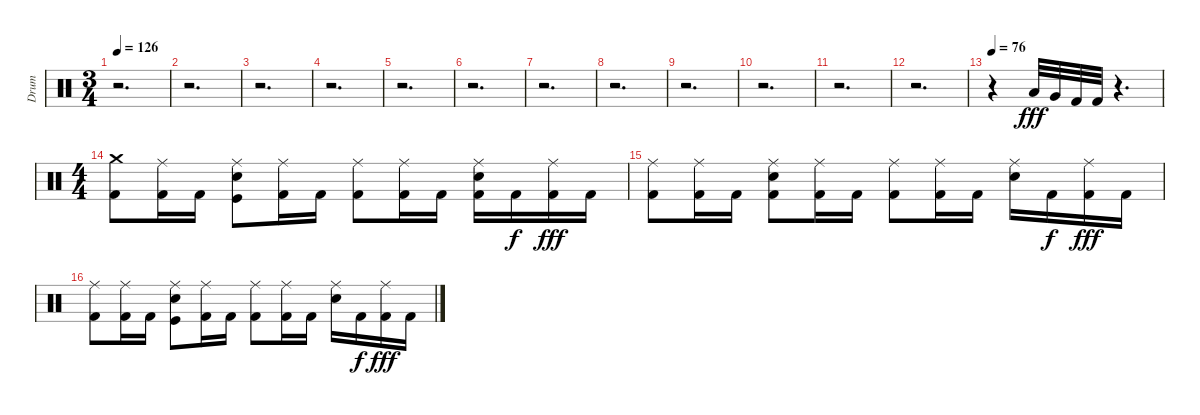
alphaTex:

\track ("Drum" "Drum") {instrument percussion}
\staff {score}
\articulation defaults
\ts (3 4)
\tempo 126
\clef neutral
\ks c
r.2{d dy fff} |
r.2{d} |
r.2{d} |
r.2{d} |
r.2{d} |
r.2{d} |
r.2{d} |
r.2{d} |
r.2{d} |
r.2{d} |
r.2{d} |
r.2{d} |
\tempo 76
r.4 "Low Tom (hit)".32 "Very Low Tom (hit)".32 "Kick (hit) 2".32 "Kick (hit) 2".32 r.4{d} |
\ts (4 4)
("Kick (hit) 2" "Crash medium (hit)").8 ("Kick (hit) 2" "Ride (middle)").16 "Kick (hit) 2".16 ("Kick (hit)" "Electric Snare (hit)" "Ride (middle)").8 ("Kick (hit) 2" "Ride (middle)").16 "Kick (hit) 2".16 ("Kick (hit) 2" "Ride (middle)").8 ("Kick (hit) 2" "Ride (middle)").16 "Kick (hit) 2".16 ("Kick (hit) 2" "Electric Snare (hit)" "Ride (middle)").16 "Kick (hit) 2".16{dy f} ("Kick (hit) 2" "Ride (middle)").16{dy fff} "Kick (hit) 2".16 |
("Kick (hit) 2" "Ride (middle)").8 ("Kick (hit) 2" "Ride (middle)").16 "Kick (hit) 2".16 ("Kick (hit) 2" "Electric Snare (hit)" "Ride (middle)").8 ("Kick (hit) 2" "Ride (middle)").16 "Kick (hit) 2".16 ("Kick (hit) 2" "Ride (middle)").8 ("Kick (hit) 2" "Ride (middle)").16 "Kick (hit) 2".16 ("Electric Snare (hit)" "Ride (middle)").16 "Kick (hit) 2".16{dy f} ("Kick (hit) 2" "Ride (middle)").16{dy fff} "Kick (hit) 2".16 |
("Kick (hit) 2" "Ride (middle)").8 ("Kick (hit) 2" "Ride (middle)").16 "Kick (hit) 2".16 ("Kick (hit)" "Electric Snare (hit)" "Ride (middle)").8 ("Kick (hit) 2" "Ride (middle)").16 "Kick (hit) 2".16 ("Kick (hit) 2" "Ride (middle)").8 ("Kick (hit) 2" "Ride (middle)").16 "Kick (hit) 2".16 ("Electric Snare (hit)" "Ride (middle)").16 "Kick (hit) 2".16{dy f} ("Kick (hit) 2" "Ride (middle)").16{dy fff} "Kick (hit) 2".16
